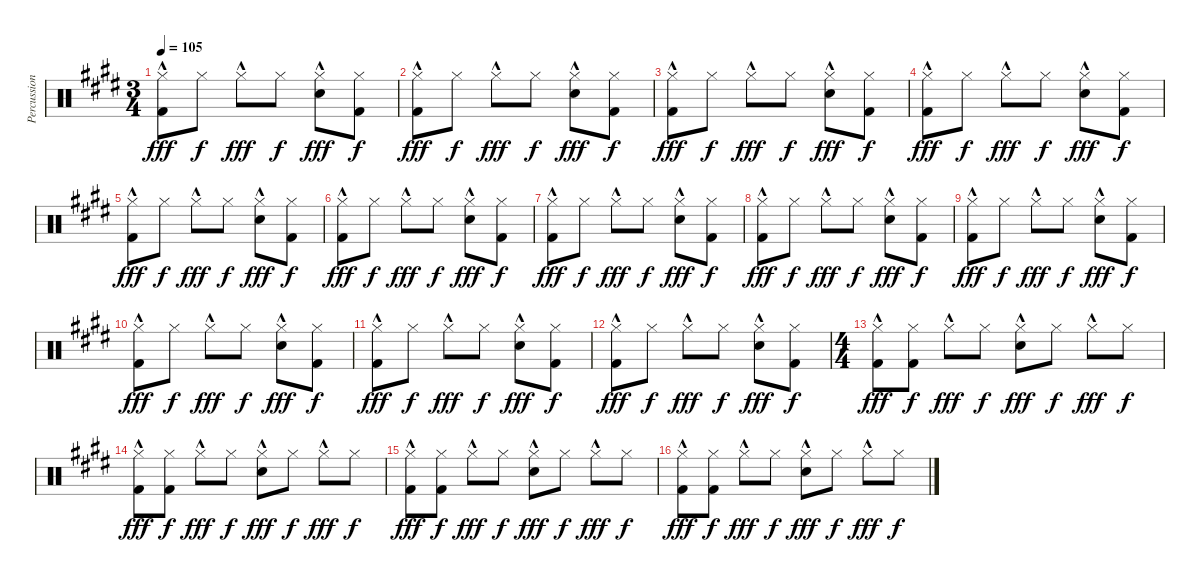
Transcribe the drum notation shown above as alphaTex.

\track ("Percussion" "Percussion") {instrument percussion}
\staff {score}
\articulation defaults
\ts (3 4)
\tempo 105
\clef neutral
\ks c#minor
("Hi-Hat (closed)"{hac} "Kick (hit) 2").8{dy fff} "Hi-Hat (closed)".8{dy f} "Hi-Hat (closed)"{hac}.8{dy fff} "Hi-Hat (closed)".8{dy f} ("Hi-Hat (closed)"{hac} "Snare (hit) 2").8{dy fff} ("Hi-Hat (closed)" "Kick (hit) 2").8{dy f} |
("Hi-Hat (closed)"{hac} "Kick (hit) 2").8{dy fff} "Hi-Hat (closed)".8{dy f} "Hi-Hat (closed)"{hac}.8{dy fff} "Hi-Hat (closed)".8{dy f} ("Hi-Hat (closed)"{hac} "Snare (hit) 2").8{dy fff} ("Hi-Hat (closed)" "Kick (hit) 2").8{dy f} |
("Hi-Hat (closed)"{hac} "Kick (hit) 2").8{dy fff} "Hi-Hat (closed)".8{dy f} "Hi-Hat (closed)"{hac}.8{dy fff} "Hi-Hat (closed)".8{dy f} ("Hi-Hat (closed)"{hac} "Snare (hit) 2").8{dy fff} ("Hi-Hat (closed)" "Kick (hit) 2").8{dy f} |
("Hi-Hat (closed)"{hac} "Kick (hit) 2").8{dy fff} "Hi-Hat (closed)".8{dy f} "Hi-Hat (closed)"{hac}.8{dy fff} "Hi-Hat (closed)".8{dy f} ("Hi-Hat (closed)"{hac} "Snare (hit) 2").8{dy fff} ("Hi-Hat (closed)" "Kick (hit) 2").8{dy f} |
("Hi-Hat (closed)"{hac} "Kick (hit) 2").8{dy fff} "Hi-Hat (closed)".8{dy f} "Hi-Hat (closed)"{hac}.8{dy fff} "Hi-Hat (closed)".8{dy f} ("Hi-Hat (closed)"{hac} "Snare (hit) 2").8{dy fff} ("Hi-Hat (closed)" "Kick (hit) 2").8{dy f} |
("Hi-Hat (closed)"{hac} "Kick (hit) 2").8{dy fff} "Hi-Hat (closed)".8{dy f} "Hi-Hat (closed)"{hac}.8{dy fff} "Hi-Hat (closed)".8{dy f} ("Hi-Hat (closed)"{hac} "Snare (hit) 2").8{dy fff} ("Hi-Hat (closed)" "Kick (hit) 2").8{dy f} |
("Hi-Hat (closed)"{hac} "Kick (hit) 2").8{dy fff} "Hi-Hat (closed)".8{dy f} "Hi-Hat (closed)"{hac}.8{dy fff} "Hi-Hat (closed)".8{dy f} ("Hi-Hat (closed)"{hac} "Snare (hit) 2").8{dy fff} ("Hi-Hat (closed)" "Kick (hit) 2").8{dy f} |
("Hi-Hat (closed)"{hac} "Kick (hit) 2").8{dy fff} "Hi-Hat (closed)".8{dy f} "Hi-Hat (closed)"{hac}.8{dy fff} "Hi-Hat (closed)".8{dy f} ("Hi-Hat (closed)"{hac} "Snare (hit) 2").8{dy fff} ("Hi-Hat (closed)" "Kick (hit) 2").8{dy f} |
("Hi-Hat (closed)"{hac} "Kick (hit) 2").8{dy fff} "Hi-Hat (closed)".8{dy f} "Hi-Hat (closed)"{hac}.8{dy fff} "Hi-Hat (closed)".8{dy f} ("Hi-Hat (closed)"{hac} "Snare (hit) 2").8{dy fff} ("Hi-Hat (closed)" "Kick (hit) 2").8{dy f} |
("Hi-Hat (closed)"{hac} "Kick (hit) 2").8{dy fff} "Hi-Hat (closed)".8{dy f} "Hi-Hat (closed)"{hac}.8{dy fff} "Hi-Hat (closed)".8{dy f} ("Hi-Hat (closed)"{hac} "Snare (hit) 2").8{dy fff} ("Hi-Hat (closed)" "Kick (hit) 2").8{dy f} |
("Hi-Hat (closed)"{hac} "Kick (hit) 2").8{dy fff} "Hi-Hat (closed)".8{dy f} "Hi-Hat (closed)"{hac}.8{dy fff} "Hi-Hat (closed)".8{dy f} ("Hi-Hat (closed)"{hac} "Snare (hit) 2").8{dy fff} ("Hi-Hat (closed)" "Kick (hit) 2").8{dy f} |
("Hi-Hat (closed)"{hac} "Kick (hit) 2").8{dy fff} "Hi-Hat (closed)".8{dy f} "Hi-Hat (closed)"{hac}.8{dy fff} "Hi-Hat (closed)".8{dy f} ("Hi-Hat (closed)"{hac} "Snare (hit) 2").8{dy fff} ("Hi-Hat (closed)" "Kick (hit) 2").8{dy f} |
\ts (4 4)
("Hi-Hat (closed)"{hac} "Kick (hit) 2").8{dy fff} ("Hi-Hat (closed)" "Kick (hit) 2").8{dy f} "Hi-Hat (closed)"{hac}.8{dy fff} "Hi-Hat (closed)".8{dy f} ("Hi-Hat (closed)"{hac} "Snare (hit) 2").8{dy fff} "Hi-Hat (closed)".8{dy f} "Hi-Hat (closed)"{hac}.8{dy fff} "Hi-Hat (closed)".8{dy f} |
("Hi-Hat (closed)"{hac} "Kick (hit) 2").8{dy fff} ("Hi-Hat (closed)" "Kick (hit) 2").8{dy f} "Hi-Hat (closed)"{hac}.8{dy fff} "Hi-Hat (closed)".8{dy f} ("Hi-Hat (closed)"{hac} "Snare (hit) 2").8{dy fff} "Hi-Hat (closed)".8{dy f} "Hi-Hat (closed)"{hac}.8{dy fff} "Hi-Hat (closed)".8{dy f} |
("Hi-Hat (closed)"{hac} "Kick (hit) 2").8{dy fff} ("Hi-Hat (closed)" "Kick (hit) 2").8{dy f} "Hi-Hat (closed)"{hac}.8{dy fff} "Hi-Hat (closed)".8{dy f} ("Hi-Hat (closed)"{hac} "Snare (hit) 2").8{dy fff} "Hi-Hat (closed)".8{dy f} "Hi-Hat (closed)"{hac}.8{dy fff} "Hi-Hat (closed)".8{dy f} |
("Hi-Hat (closed)"{hac} "Kick (hit) 2").8{dy fff} ("Hi-Hat (closed)" "Kick (hit) 2").8{dy f} "Hi-Hat (closed)"{hac}.8{dy fff} "Hi-Hat (closed)".8{dy f} ("Hi-Hat (closed)"{hac} "Snare (hit) 2").8{dy fff} "Hi-Hat (closed)".8{dy f} "Hi-Hat (closed)"{hac}.8{dy fff} "Hi-Hat (closed)".8{dy f}
